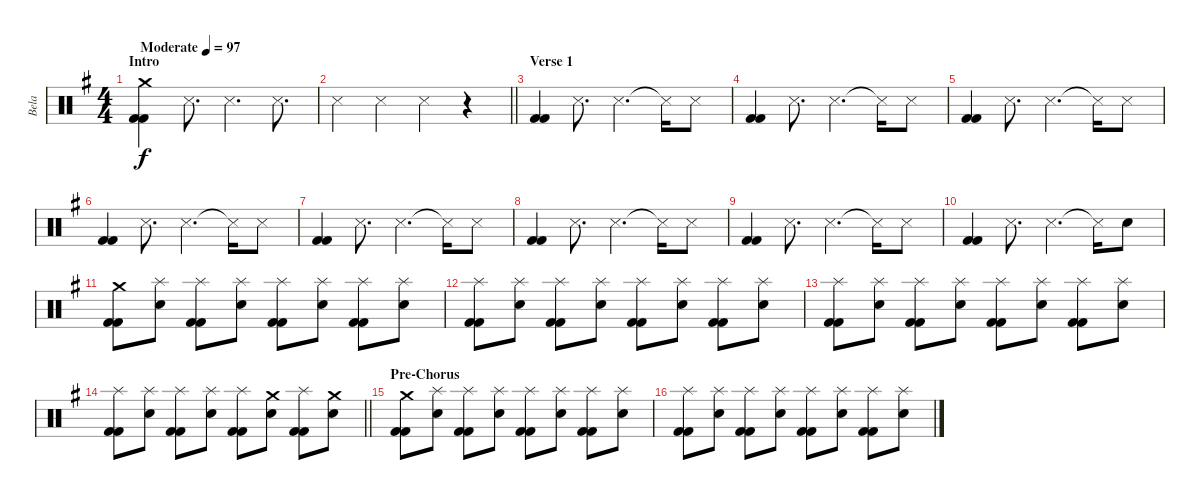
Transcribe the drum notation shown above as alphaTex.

\track ("Bela" "Bela") {instrument percussion}
\staff {score}
\articulation defaults
\ts (4 4)
\section ("" "Intro")
\tempo (97 "Moderate")
\clef neutral
\ks g
("Crash medium (hit)" "Kick (hit) 2" "Kick (hit) 2").4{dy f} "Snare (side stick) 3".8{d} "Snare (side stick) 3".4{d} "Snare (side stick) 3".8{d} |
\barLineRight lightlight "Snare (side stick) 3".4 "Snare (side stick) 3".4 "Snare (side stick) 3".4
r.4 |
\section ("" "Verse 1")
("Kick (hit) 2" "Kick (hit) 2").4 "Snare (side stick) 3".8{d} "Snare (side stick) 3".4{d} "Snare (side stick) 3"{t}.16 "Snare (side stick) 3".8 |
("Kick (hit) 2" "Kick (hit) 2").4 "Snare (side stick) 3".8{d} "Snare (side stick) 3".4{d} "Snare (side stick) 3"{t}.16 "Snare (side stick) 3".8 |
("Kick (hit) 2" "Kick (hit) 2").4 "Snare (side stick) 3".8{d} "Snare (side stick) 3".4{d} "Snare (side stick) 3"{t}.16 "Snare (side stick) 3".8 |
("Kick (hit) 2" "Kick (hit) 2").4 "Snare (side stick) 3".8{d} "Snare (side stick) 3".4{d} "Snare (side stick) 3"{t}.16 "Snare (side stick) 3".8 |
("Kick (hit) 2" "Kick (hit) 2").4 "Snare (side stick) 3".8{d} "Snare (side stick) 3".4{d} "Snare (side stick) 3"{t}.16 "Snare (side stick) 3".8 |
("Kick (hit) 2" "Kick (hit) 2").4 "Snare (side stick) 3".8{d} "Snare (side stick) 3".4{d} "Snare (side stick) 3"{t}.16 "Snare (side stick) 3".8 |
("Kick (hit) 2" "Kick (hit) 2").4 "Snare (side stick) 3".8{d} "Snare (side stick) 3".4{d} "Snare (side stick) 3"{t}.16 "Snare (side stick) 3".8 |
("Kick (hit) 2" "Kick (hit) 2").4 "Snare (side stick) 3".8{d} "Snare (side stick) 3".4{d} "Snare (side stick) 3"{t}.16 "Electric Snare (hit)".8 |
("Crash medium (hit)" "Kick (hit) 2" "Kick (hit) 2").8 ("Splash (hit)" "Electric Snare (hit)").8 ("Splash (hit)" "Kick (hit) 2" "Kick (hit) 2").8 ("Splash (hit)" "Electric Snare (hit)").8 ("Splash (hit)" "Kick (hit) 2" "Kick (hit) 2").8 ("Splash (hit)" "Electric Snare (hit)").8 ("Splash (hit)" "Kick (hit) 2" "Kick (hit) 2").8 ("Splash (hit)" "Electric Snare (hit)").8 |
("Splash (hit)" "Kick (hit) 2" "Kick (hit) 2").8 ("Splash (hit)" "Electric Snare (hit)").8 ("Splash (hit)" "Kick (hit) 2" "Kick (hit) 2").8 ("Splash (hit)" "Electric Snare (hit)").8 ("Splash (hit)" "Kick (hit) 2" "Kick (hit) 2").8 ("Splash (hit)" "Electric Snare (hit)").8 ("Splash (hit)" "Kick (hit) 2" "Kick (hit) 2").8 ("Splash (hit)" "Electric Snare (hit)").8 |
("Splash (hit)" "Kick (hit) 2" "Kick (hit) 2").8 ("Splash (hit)" "Electric Snare (hit)").8 ("Splash (hit)" "Kick (hit) 2" "Kick (hit) 2").8 ("Splash (hit)" "Electric Snare (hit)").8 ("Splash (hit)" "Kick (hit) 2" "Kick (hit) 2").8 ("Splash (hit)" "Electric Snare (hit)").8 ("Splash (hit)" "Kick (hit) 2" "Kick (hit) 2").8 ("Splash (hit)" "Electric Snare (hit)").8 |
\barLineRight lightlight
("Splash (hit)" "Kick (hit) 2" "Kick (hit) 2").8 ("Splash (hit)" "Electric Snare (hit)").8 ("Splash (hit)" "Kick (hit) 2" "Kick (hit) 2").8 ("Splash (hit)" "Electric Snare (hit)").8 ("Splash (hit)" "Kick (hit) 2" "Kick (hit) 2").8 ("Crash medium (hit)" "Electric Snare (hit)").8 ("Splash (hit)" "Kick (hit) 2" "Kick (hit) 2").8 ("Crash medium (hit)" "Electric Snare (hit)").8 |
\section ("" "Pre-Chorus")
("Crash medium (hit)" "Kick (hit) 2" "Kick (hit) 2").8 ("Splash (hit)" "Electric Snare (hit)").8 ("Splash (hit)" "Kick (hit) 2" "Kick (hit) 2").8 ("Splash (hit)" "Electric Snare (hit)").8 ("Splash (hit)" "Kick (hit) 2" "Kick (hit) 2").8 ("Splash (hit)" "Electric Snare (hit)").8 ("Splash (hit)" "Kick (hit) 2" "Kick (hit) 2").8 ("Splash (hit)" "Electric Snare (hit)").8 |
("Splash (hit)" "Kick (hit) 2" "Kick (hit) 2").8 ("Splash (hit)" "Electric Snare (hit)").8 ("Splash (hit)" "Kick (hit) 2" "Kick (hit) 2").8 ("Splash (hit)" "Electric Snare (hit)").8 ("Splash (hit)" "Kick (hit) 2" "Kick (hit) 2").8 ("Splash (hit)" "Electric Snare (hit)").8 ("Splash (hit)" "Kick (hit) 2" "Kick (hit) 2").8 ("Splash (hit)" "Electric Snare (hit)").8
